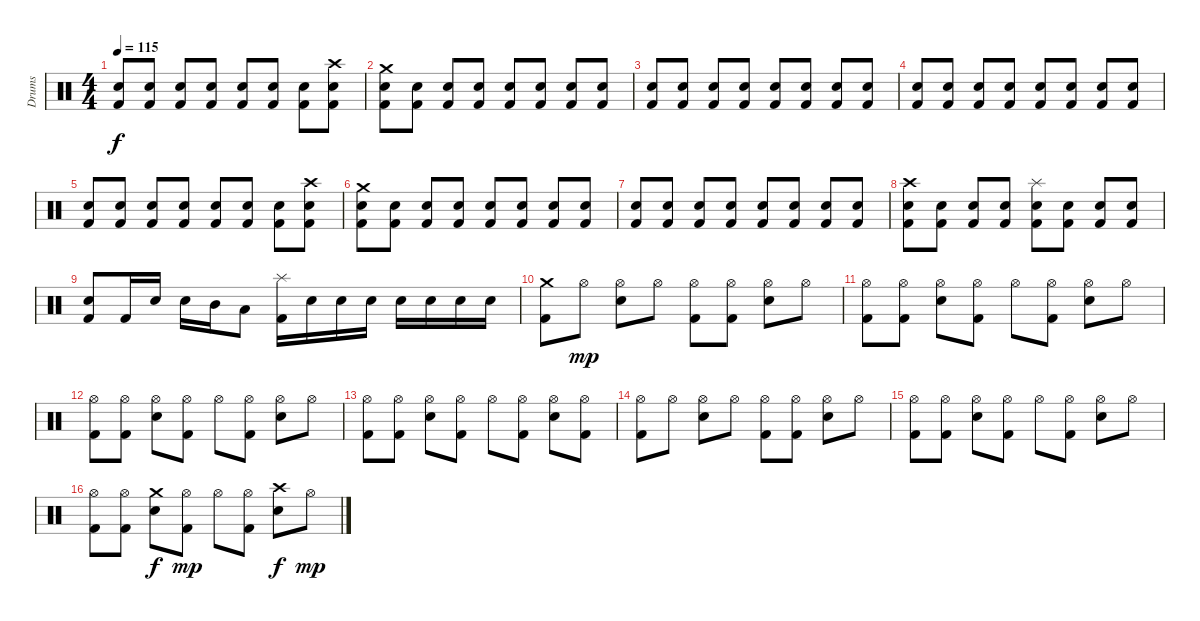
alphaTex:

\track ("Drums" "Drums") {instrument percussion}
\staff {score}
\articulation defaults
\ts (4 4)
\tempo 115
\clef neutral
\ks c
("Snare (hit) 2" "Kick (hit) 2").8{dy f} ("Snare (hit) 2" "Kick (hit) 2").8 ("Snare (hit) 2" "Kick (hit) 2").8 ("Snare (hit) 2" "Kick (hit) 2").8 ("Snare (hit) 2" "Kick (hit) 2").8 ("Snare (hit) 2" "Kick (hit) 2").8 ("Snare (hit) 2" "Kick (hit) 2").8 ("Crash high (hit)" "Snare (hit) 2" "Kick (hit) 2").8 |
("Crash medium (hit)" "Snare (hit) 2" "Kick (hit) 2").8 ("Snare (hit) 2" "Kick (hit) 2").8 ("Snare (hit) 2" "Kick (hit) 2").8 ("Snare (hit) 2" "Kick (hit) 2").8 ("Snare (hit) 2" "Kick (hit) 2").8 ("Snare (hit) 2" "Kick (hit) 2").8 ("Snare (hit) 2" "Kick (hit) 2").8 ("Snare (hit) 2" "Kick (hit) 2").8 |
("Snare (hit) 2" "Kick (hit) 2").8 ("Snare (hit) 2" "Kick (hit) 2").8 ("Snare (hit) 2" "Kick (hit) 2").8 ("Snare (hit) 2" "Kick (hit) 2").8 ("Snare (hit) 2" "Kick (hit) 2").8 ("Snare (hit) 2" "Kick (hit) 2").8 ("Snare (hit) 2" "Kick (hit) 2").8 ("Snare (hit) 2" "Kick (hit) 2").8 |
("Snare (hit) 2" "Kick (hit) 2").8 ("Snare (hit) 2" "Kick (hit) 2").8 ("Snare (hit) 2" "Kick (hit) 2").8 ("Snare (hit) 2" "Kick (hit) 2").8 ("Snare (hit) 2" "Kick (hit) 2").8 ("Snare (hit) 2" "Kick (hit) 2").8 ("Snare (hit) 2" "Kick (hit) 2").8 ("Snare (hit) 2" "Kick (hit) 2").8 |
("Snare (hit) 2" "Kick (hit) 2").8 ("Snare (hit) 2" "Kick (hit) 2").8 ("Snare (hit) 2" "Kick (hit) 2").8 ("Snare (hit) 2" "Kick (hit) 2").8 ("Snare (hit) 2" "Kick (hit) 2").8 ("Snare (hit) 2" "Kick (hit) 2").8 ("Snare (hit) 2" "Kick (hit) 2").8 ("Crash high (hit)" "Snare (hit) 2" "Kick (hit) 2").8 |
("Crash medium (hit)" "Snare (hit) 2" "Kick (hit) 2").8 ("Snare (hit) 2" "Kick (hit) 2").8 ("Snare (hit) 2" "Kick (hit) 2").8 ("Snare (hit) 2" "Kick (hit) 2").8 ("Snare (hit) 2" "Kick (hit) 2").8 ("Snare (hit) 2" "Kick (hit) 2").8 ("Snare (hit) 2" "Kick (hit) 2").8 ("Snare (hit) 2" "Kick (hit) 2").8 |
("Snare (hit) 2" "Kick (hit) 2").8 ("Snare (hit) 2" "Kick (hit) 2").8 ("Snare (hit) 2" "Kick (hit) 2").8 ("Snare (hit) 2" "Kick (hit) 2").8 ("Snare (hit) 2" "Kick (hit) 2").8 ("Snare (hit) 2" "Kick (hit) 2").8 ("Snare (hit) 2" "Kick (hit) 2").8 ("Snare (hit) 2" "Kick (hit) 2").8 |
("Crash high (hit)" "Snare (hit) 2" "Kick (hit) 2").8 ("Snare (hit) 2" "Kick (hit) 2").8 ("Snare (hit) 2" "Kick (hit) 2").8 ("Snare (hit) 2" "Kick (hit) 2").8 ("Splash (hit)" "Snare (hit) 2" "Kick (hit) 2").8 ("Snare (hit) 2" "Kick (hit) 2").8 ("Snare (hit) 2" "Kick (hit) 2").8 ("Snare (hit) 2" "Kick (hit) 2").8 |
("Snare (hit) 2" "Kick (hit) 2").8 "Kick (hit) 2".16 "Snare (hit) 2".16 "Snare (hit) 2".16 "Mid Tom (hit)".16 "Low Tom (hit)".8 ("Splash (hit)" "Kick (hit) 2").16 "Snare (hit) 2".16 "Snare (hit) 2".16 "Snare (hit) 2".16 "Snare (hit) 2".16 "Snare (hit) 2".16 "Snare (hit) 2".16 "Snare (hit) 2".16 |
("Crash medium (hit)" "Kick (hit) 2").8 "Hi-Hat (open)".8{dy mp} ("Hi-Hat (open)" "Snare (hit) 2").8 "Hi-Hat (open)".8 ("Hi-Hat (open)" "Kick (hit) 2").8 ("Hi-Hat (open)" "Kick (hit) 2").8 ("Hi-Hat (open)" "Snare (hit) 2").8 "Hi-Hat (open)".8 |
("Hi-Hat (open)" "Kick (hit) 2").8 ("Hi-Hat (open)" "Kick (hit) 2").8 ("Hi-Hat (open)" "Snare (hit) 2").8 ("Hi-Hat (open)" "Kick (hit) 2").8 "Hi-Hat (open)".8 ("Hi-Hat (open)" "Kick (hit) 2").8 ("Hi-Hat (open)" "Snare (hit) 2").8 "Hi-Hat (open)".8 |
("Hi-Hat (open)" "Kick (hit) 2").8 ("Hi-Hat (open)" "Kick (hit) 2").8 ("Hi-Hat (open)" "Snare (hit) 2").8 ("Hi-Hat (open)" "Kick (hit) 2").8 "Hi-Hat (open)".8 ("Hi-Hat (open)" "Kick (hit) 2").8 ("Hi-Hat (open)" "Snare (hit) 2").8 "Hi-Hat (open)".8 |
("Hi-Hat (open)" "Kick (hit) 2").8 ("Hi-Hat (open)" "Kick (hit) 2").8 ("Hi-Hat (open)" "Snare (hit) 2").8 ("Hi-Hat (open)" "Kick (hit) 2").8 "Hi-Hat (open)".8 ("Hi-Hat (open)" "Kick (hit) 2").8 ("Hi-Hat (open)" "Snare (hit) 2").8 ("Hi-Hat (open)" "Kick (hit) 2").8 |
("Hi-Hat (open)" "Kick (hit) 2").8 "Hi-Hat (open)".8 ("Hi-Hat (open)" "Snare (hit) 2").8 "Hi-Hat (open)".8 ("Hi-Hat (open)" "Kick (hit) 2").8 ("Hi-Hat (open)" "Kick (hit) 2").8 ("Hi-Hat (open)" "Snare (hit) 2").8 "Hi-Hat (open)".8 |
("Hi-Hat (open)" "Kick (hit) 2").8 ("Hi-Hat (open)" "Kick (hit) 2").8 ("Hi-Hat (open)" "Snare (hit) 2").8 ("Hi-Hat (open)" "Kick (hit) 2").8 "Hi-Hat (open)".8 ("Hi-Hat (open)" "Kick (hit) 2").8 ("Hi-Hat (open)" "Snare (hit) 2").8 "Hi-Hat (open)".8 |
("Hi-Hat (open)" "Kick (hit) 2").8 ("Hi-Hat (open)" "Kick (hit) 2").8 ("Crash medium (hit)" "Snare (hit) 2").8{dy f} ("Hi-Hat (open)" "Kick (hit) 2").8{dy mp} "Hi-Hat (open)".8 ("Hi-Hat (open)" "Kick (hit) 2").8 ("Crash high (hit)" "Snare (hit) 2").8{dy f} "Hi-Hat (open)".8{dy mp}
